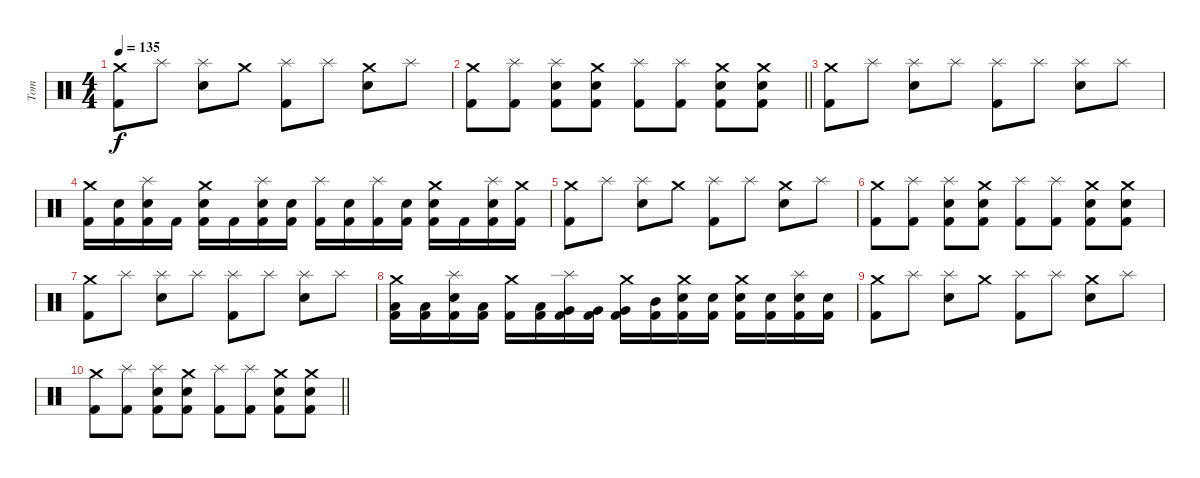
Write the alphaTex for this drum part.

\track ("Tom" "Tom") {instrument percussion}
\staff {score}
\articulation defaults
\ts (4 4)
\tempo 135
\clef neutral
\ks c
("Crash medium (hit)" "Kick (hit) 2").8{dy f} "Splash (hit)".8 ("Splash (hit)" "Electric Snare (hit)").8 "Crash medium (hit)".8 ("Splash (hit)" "Kick (hit) 2").8 "Splash (hit)".8 ("Crash medium (hit)" "Electric Snare (hit)").8 "Splash (hit)".8 |
\barLineRight lightlight
("Crash medium (hit)" "Kick (hit) 2").8 ("Splash (hit)" "Kick (hit) 2").8 ("Splash (hit)" "Electric Snare (hit)" "Kick (hit) 2").8 ("Crash medium (hit)" "Electric Snare (hit)" "Kick (hit) 2").8 ("Splash (hit)" "Kick (hit) 2").8 ("Splash (hit)" "Kick (hit) 2").8 ("Crash medium (hit)" "Electric Snare (hit)" "Kick (hit) 2").8 ("Crash medium (hit)" "Electric Snare (hit)" "Kick (hit) 2").8 |
("Crash medium (hit)" "Kick (hit) 2").8 "Splash (hit)".8 ("Splash (hit)" "Electric Snare (hit)").8 "Splash (hit)".8 ("Splash (hit)" "Kick (hit) 2").8 "Splash (hit)".8 ("Splash (hit)" "Electric Snare (hit)").8 "Splash (hit)".8 |
("Crash medium (hit)" "Kick (hit) 2").16 ("Electric Snare (hit)" "Kick (hit) 2").16 ("Splash (hit)" "Electric Snare (hit)" "Kick (hit) 2").16 "Kick (hit) 2".16 ("Crash medium (hit)" "Electric Snare (hit)" "Kick (hit) 2").16 "Kick (hit) 2".16 ("Splash (hit)" "Electric Snare (hit)" "Kick (hit) 2").16 ("Electric Snare (hit)" "Kick (hit) 2").16 ("Splash (hit)" "Kick (hit) 2").16 ("Electric Snare (hit)" "Kick (hit) 2").16 ("Splash (hit)" "Kick (hit) 2").16 ("Electric Snare (hit)" "Kick (hit) 2").16 ("Crash medium (hit)" "Electric Snare (hit)" "Kick (hit) 2").16 "Kick (hit) 2".16 ("Splash (hit)" "Electric Snare (hit)" "Kick (hit) 2").16 ("Crash medium (hit)" "Kick (hit) 2").16 |
("Crash medium (hit)" "Kick (hit) 2").8 "Splash (hit)".8 ("Splash (hit)" "Electric Snare (hit)").8 "Crash medium (hit)".8 ("Splash (hit)" "Kick (hit) 2").8 "Splash (hit)".8 ("Crash medium (hit)" "Electric Snare (hit)").8 "Splash (hit)".8 |
("Crash medium (hit)" "Kick (hit) 2").8 ("Splash (hit)" "Kick (hit) 2").8 ("Splash (hit)" "Electric Snare (hit)" "Kick (hit) 2").8 ("Crash medium (hit)" "Electric Snare (hit)" "Kick (hit) 2").8 ("Splash (hit)" "Kick (hit) 2").8 ("Splash (hit)" "Kick (hit) 2").8 ("Crash medium (hit)" "Electric Snare (hit)" "Kick (hit) 2").8 ("Crash medium (hit)" "Electric Snare (hit)" "Kick (hit) 2").8 |
("Crash medium (hit)" "Kick (hit) 2").8 "Splash (hit)".8 ("Splash (hit)" "Electric Snare (hit)").8 "Splash (hit)".8 ("Splash (hit)" "Kick (hit) 2").8 "Splash (hit)".8 ("Splash (hit)" "Electric Snare (hit)").8 "Splash (hit)".8 |
("Crash medium (hit)" "Low Floor Tom (hit)" "Kick (hit) 2").16 ("Low Floor Tom (hit)" "Kick (hit) 2").16 ("Splash (hit)" "Electric Snare (hit)" "Kick (hit) 2").16 ("Low Floor Tom (hit)" "Kick (hit) 2").16 ("Crash medium (hit)" "Kick (hit) 2").16 ("Low Floor Tom (hit)" "Kick (hit) 2").16 ("Splash (hit)" "Very Low Tom (hit)" "Kick (hit) 2").16 ("Very Low Tom (hit)" "Kick (hit) 2").16 ("Crash medium (hit)" "Very Low Tom (hit)" "Kick (hit) 2").16 ("Mid Tom (hit)" "Kick (hit) 2").16 ("Crash medium (hit)" "Electric Snare (hit)" "Kick (hit) 2").16 ("Electric Snare (hit)" "Kick (hit) 2").16 ("Crash medium (hit)" "Electric Snare (hit)" "Kick (hit) 2").16 ("Electric Snare (hit)" "Kick (hit) 2").16 ("Splash (hit)" "Electric Snare (hit)" "Kick (hit) 2").16 ("Electric Snare (hit)" "Kick (hit) 2").16 |
("Crash medium (hit)" "Kick (hit) 2").8 "Splash (hit)".8 ("Splash (hit)" "Electric Snare (hit)").8 "Crash medium (hit)".8 ("Splash (hit)" "Kick (hit) 2").8 "Splash (hit)".8 ("Crash medium (hit)" "Electric Snare (hit)").8 "Splash (hit)".8 |
\barLineRight lightlight
("Crash medium (hit)" "Kick (hit) 2").8 ("Splash (hit)" "Kick (hit) 2").8 ("Splash (hit)" "Electric Snare (hit)" "Kick (hit) 2").8 ("Crash medium (hit)" "Electric Snare (hit)" "Kick (hit) 2").8 ("Splash (hit)" "Kick (hit) 2").8 ("Splash (hit)" "Kick (hit) 2").8 ("Crash medium (hit)" "Electric Snare (hit)" "Kick (hit) 2").8 ("Crash medium (hit)" "Electric Snare (hit)" "Kick (hit) 2").8
